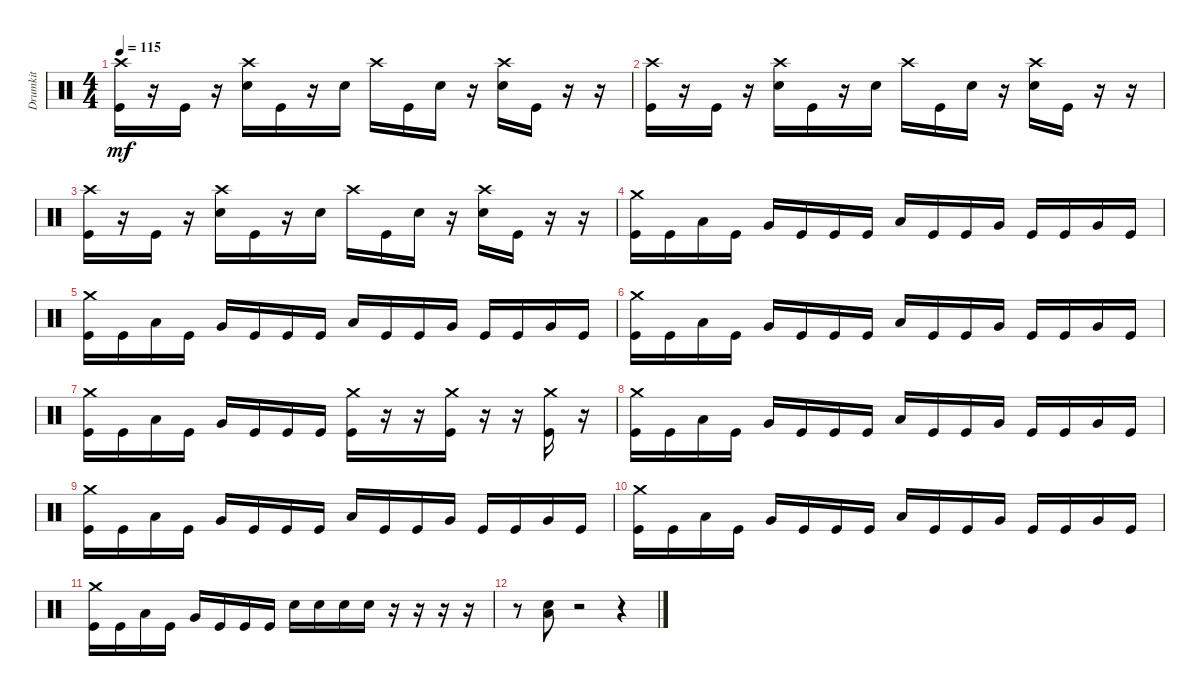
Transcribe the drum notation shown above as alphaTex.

\track ("Drumkit" "Drumkit") {instrument percussion}
\staff {score}
\articulation defaults
\ts (4 4)
\tempo 115
\clef neutral
\ks c
("Kick (hit)" "Crash high (hit)").16{dy mf} r.16 "Kick (hit)".16 r.16 ("Snare (hit) 2" "Crash high (hit)").16 "Kick (hit)".16 r.16 "Snare (hit) 2".16 "Crash high (hit)".16 "Kick (hit)".16 "Snare (hit) 2".16 r.16 ("Snare (hit) 2" "Crash high (hit)").16 "Kick (hit)".16 r.16 r.16 |
("Kick (hit)" "Crash high (hit)").16 r.16 "Kick (hit)".16 r.16 ("Snare (hit) 2" "Crash high (hit)").16 "Kick (hit)".16 r.16 "Snare (hit) 2".16 "Crash high (hit)".16 "Kick (hit)".16 "Snare (hit) 2".16 r.16 ("Snare (hit) 2" "Crash high (hit)").16 "Kick (hit)".16 r.16 r.16 |
("Kick (hit)" "Crash high (hit)").16 r.16 "Kick (hit)".16 r.16 ("Snare (hit) 2" "Crash high (hit)").16 "Kick (hit)".16 r.16 "Snare (hit) 2".16 "Crash high (hit)".16 "Kick (hit)".16 "Snare (hit) 2".16 r.16 ("Snare (hit) 2" "Crash high (hit)").16 "Kick (hit)".16 r.16 r.16 |
("Kick (hit)" "Crash medium (hit)").16 "Kick (hit)".16 "Low Tom (hit)".16 "Kick (hit)".16 "Very Low Tom (hit)".16 "Kick (hit)".16 "Kick (hit)".16 "Kick (hit)".16 "Low Tom (hit)".16 "Kick (hit)".16 "Kick (hit)".16 "Very Low Tom (hit)".16 "Kick (hit)".16 "Kick (hit)".16 "Very Low Tom (hit)".16 "Kick (hit)".16 |
("Kick (hit)" "Crash medium (hit)").16 "Kick (hit)".16 "Low Tom (hit)".16 "Kick (hit)".16 "Very Low Tom (hit)".16 "Kick (hit)".16 "Kick (hit)".16 "Kick (hit)".16 "Low Tom (hit)".16 "Kick (hit)".16 "Kick (hit)".16 "Very Low Tom (hit)".16 "Kick (hit)".16 "Kick (hit)".16 "Very Low Tom (hit)".16 "Kick (hit)".16 |
("Kick (hit)" "Crash medium (hit)").16 "Kick (hit)".16 "Low Tom (hit)".16 "Kick (hit)".16 "Very Low Tom (hit)".16 "Kick (hit)".16 "Kick (hit)".16 "Kick (hit)".16 "Low Tom (hit)".16 "Kick (hit)".16 "Kick (hit)".16 "Very Low Tom (hit)".16 "Kick (hit)".16 "Kick (hit)".16 "Very Low Tom (hit)".16 "Kick (hit)".16 |
("Kick (hit)" "Crash medium (hit)").16 "Kick (hit)".16 "Low Tom (hit)".16 "Kick (hit)".16 "Very Low Tom (hit)".16 "Kick (hit)".16 "Kick (hit)".16 "Kick (hit)".16 ("Kick (hit)" "Crash medium (hit)").16 r.16 r.16 ("Kick (hit)" "Crash medium (hit)").16 r.16 r.16 ("Kick (hit)" "Crash medium (hit)").16 r.16 |
("Kick (hit)" "Crash medium (hit)").16 "Kick (hit)".16 "Low Tom (hit)".16 "Kick (hit)".16 "Very Low Tom (hit)".16 "Kick (hit)".16 "Kick (hit)".16 "Kick (hit)".16 "Low Tom (hit)".16 "Kick (hit)".16 "Kick (hit)".16 "Very Low Tom (hit)".16 "Kick (hit)".16 "Kick (hit)".16 "Very Low Tom (hit)".16 "Kick (hit)".16 |
("Kick (hit)" "Crash medium (hit)").16 "Kick (hit)".16 "Low Tom (hit)".16 "Kick (hit)".16 "Very Low Tom (hit)".16 "Kick (hit)".16 "Kick (hit)".16 "Kick (hit)".16 "Low Tom (hit)".16 "Kick (hit)".16 "Kick (hit)".16 "Very Low Tom (hit)".16 "Kick (hit)".16 "Kick (hit)".16 "Very Low Tom (hit)".16 "Kick (hit)".16 |
("Kick (hit)" "Crash medium (hit)").16 "Kick (hit)".16 "Low Tom (hit)".16 "Kick (hit)".16 "Very Low Tom (hit)".16 "Kick (hit)".16 "Kick (hit)".16 "Kick (hit)".16 "Low Tom (hit)".16 "Kick (hit)".16 "Kick (hit)".16 "Very Low Tom (hit)".16 "Kick (hit)".16 "Kick (hit)".16 "Very Low Tom (hit)".16 "Kick (hit)".16 |
("Kick (hit)" "Crash medium (hit)").16 "Kick (hit)".16 "Low Tom (hit)".16 "Kick (hit)".16 "Very Low Tom (hit)".16 "Kick (hit)".16 "Kick (hit)".16 "Kick (hit)".16 "Snare (hit) 2".16 "Snare (hit) 2".16 "Snare (hit) 2".16 "Snare (hit) 2".16 r.16 r.16 r.16 r.16 |
r.8 ("Snare (hit) 2" "Low Floor Tom (hit)").8 r.2 r.4
